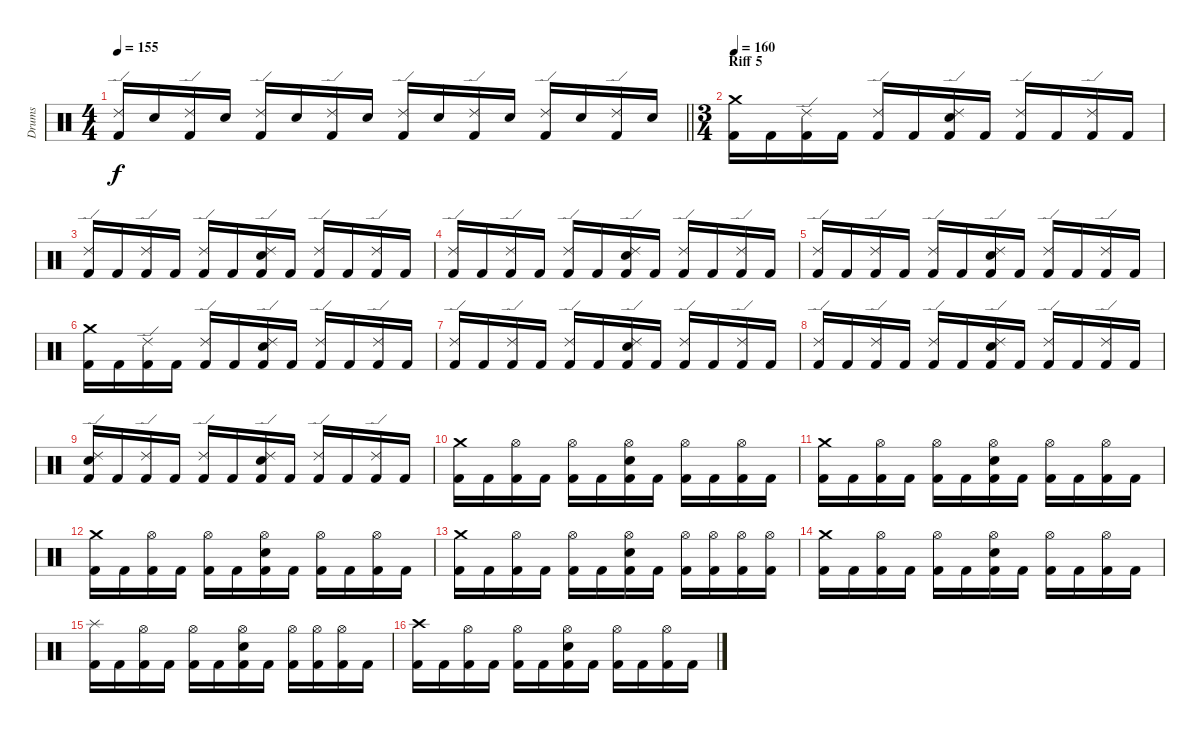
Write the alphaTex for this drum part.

\track ("Drums" "Drums") {instrument percussion}
\staff {score}
\articulation defaults
\ts (4 4)
\tempo 155
\clef neutral
\barLineRight lightlight
\ks c
("Ride (edge) 2" "Kick (hit) 2").16{dy f} "Electric Snare (hit)".16 ("Ride (edge) 2" "Kick (hit) 2").16 "Electric Snare (hit)".16 ("Ride (edge) 2" "Kick (hit) 2").16 "Electric Snare (hit)".16 ("Ride (edge) 2" "Kick (hit) 2").16 "Electric Snare (hit)".16 ("Ride (edge) 2" "Kick (hit) 2").16 "Electric Snare (hit)".16 ("Ride (edge) 2" "Kick (hit) 2").16 "Electric Snare (hit)".16 ("Ride (edge) 2" "Kick (hit) 2").16 "Electric Snare (hit)".16 ("Ride (edge) 2" "Kick (hit) 2").16 "Electric Snare (hit)".16 |
\ts (3 4)
\section ("" "Riff 5")
\tempo 160
("Crash medium (hit)" "Kick (hit) 2").16 "Kick (hit) 2".16 ("Ride (edge) 2" "Kick (hit) 2").16 "Kick (hit) 2".16 ("Ride (edge) 2" "Kick (hit) 2").16 "Kick (hit) 2".16 ("Ride (edge) 2" "Electric Snare (hit)" "Kick (hit) 2").16 "Kick (hit) 2".16 ("Ride (edge) 2" "Kick (hit) 2").16 "Kick (hit) 2".16 ("Ride (edge) 2" "Kick (hit) 2").16 "Kick (hit) 2".16 |
("Ride (edge) 2" "Kick (hit) 2").16 "Kick (hit) 2".16 ("Ride (edge) 2" "Kick (hit) 2").16 "Kick (hit) 2".16 ("Ride (edge) 2" "Kick (hit) 2").16 "Kick (hit) 2".16 ("Ride (edge) 2" "Electric Snare (hit)" "Kick (hit) 2").16 "Kick (hit) 2".16 ("Ride (edge) 2" "Kick (hit) 2").16 "Kick (hit) 2".16 ("Ride (edge) 2" "Kick (hit) 2").16 "Kick (hit) 2".16 |
("Ride (edge) 2" "Kick (hit) 2").16 "Kick (hit) 2".16 ("Ride (edge) 2" "Kick (hit) 2").16 "Kick (hit) 2".16 ("Ride (edge) 2" "Kick (hit) 2").16 "Kick (hit) 2".16 ("Ride (edge) 2" "Electric Snare (hit)" "Kick (hit) 2").16 "Kick (hit) 2".16 ("Ride (edge) 2" "Kick (hit) 2").16 "Kick (hit) 2".16 ("Ride (edge) 2" "Kick (hit) 2").16 "Kick (hit) 2".16 |
("Ride (edge) 2" "Kick (hit) 2").16 "Kick (hit) 2".16 ("Ride (edge) 2" "Kick (hit) 2").16 "Kick (hit) 2".16 ("Ride (edge) 2" "Kick (hit) 2").16 "Kick (hit) 2".16 ("Ride (edge) 2" "Electric Snare (hit)" "Kick (hit) 2").16 "Kick (hit) 2".16 ("Ride (edge) 2" "Kick (hit) 2").16 "Kick (hit) 2".16 ("Ride (edge) 2" "Kick (hit) 2").16 "Kick (hit) 2".16 |
("Crash medium (hit)" "Kick (hit) 2").16 "Kick (hit) 2".16 ("Ride (edge) 2" "Kick (hit) 2").16 "Kick (hit) 2".16 ("Ride (edge) 2" "Kick (hit) 2").16 "Kick (hit) 2".16 ("Ride (edge) 2" "Electric Snare (hit)" "Kick (hit) 2").16 "Kick (hit) 2".16 ("Ride (edge) 2" "Kick (hit) 2").16 "Kick (hit) 2".16 ("Ride (edge) 2" "Kick (hit) 2").16 "Kick (hit) 2".16 |
("Ride (edge) 2" "Kick (hit) 2").16 "Kick (hit) 2".16 ("Ride (edge) 2" "Kick (hit) 2").16 "Kick (hit) 2".16 ("Ride (edge) 2" "Kick (hit) 2").16 "Kick (hit) 2".16 ("Ride (edge) 2" "Electric Snare (hit)" "Kick (hit) 2").16 "Kick (hit) 2".16 ("Ride (edge) 2" "Kick (hit) 2").16 "Kick (hit) 2".16 ("Ride (edge) 2" "Kick (hit) 2").16 "Kick (hit) 2".16 |
("Ride (edge) 2" "Kick (hit) 2").16 "Kick (hit) 2".16 ("Ride (edge) 2" "Kick (hit) 2").16 "Kick (hit) 2".16 ("Ride (edge) 2" "Kick (hit) 2").16 "Kick (hit) 2".16 ("Ride (edge) 2" "Electric Snare (hit)" "Kick (hit) 2").16 "Kick (hit) 2".16 ("Ride (edge) 2" "Kick (hit) 2").16 "Kick (hit) 2".16 ("Ride (edge) 2" "Kick (hit) 2").16 "Kick (hit) 2".16 |
("Ride (edge) 2" "Electric Snare (hit)" "Kick (hit) 2").16 "Kick (hit) 2".16 ("Ride (edge) 2" "Kick (hit) 2").16 "Kick (hit) 2".16 ("Ride (edge) 2" "Kick (hit) 2").16 "Kick (hit) 2".16 ("Ride (edge) 2" "Electric Snare (hit)" "Kick (hit) 2").16 "Kick (hit) 2".16 ("Ride (edge) 2" "Kick (hit) 2").16 "Kick (hit) 2".16 ("Ride (edge) 2" "Kick (hit) 2").16 "Kick (hit) 2".16 |
("Crash medium (hit)" "Kick (hit) 2").16 "Kick (hit) 2".16 ("Hi-Hat (open)" "Kick (hit) 2").16 "Kick (hit) 2".16 ("Hi-Hat (open)" "Kick (hit) 2").16 "Kick (hit) 2".16 ("Hi-Hat (open)" "Electric Snare (hit)" "Kick (hit) 2").16 "Kick (hit) 2".16 ("Hi-Hat (open)" "Kick (hit) 2").16 "Kick (hit) 2".16 ("Hi-Hat (open)" "Kick (hit) 2").16 "Kick (hit) 2".16 |
("Crash medium (hit)" "Kick (hit) 2").16 "Kick (hit) 2".16 ("Hi-Hat (open)" "Kick (hit) 2").16 "Kick (hit) 2".16 ("Hi-Hat (open)" "Kick (hit) 2").16 "Kick (hit) 2".16 ("Hi-Hat (open)" "Electric Snare (hit)" "Kick (hit) 2").16 "Kick (hit) 2".16 ("Hi-Hat (open)" "Kick (hit) 2").16 "Kick (hit) 2".16 ("Hi-Hat (open)" "Kick (hit) 2").16 "Kick (hit) 2".16 |
("Crash medium (hit)" "Kick (hit) 2").16 "Kick (hit) 2".16 ("Hi-Hat (open)" "Kick (hit) 2").16 "Kick (hit) 2".16 ("Hi-Hat (open)" "Kick (hit) 2").16 "Kick (hit) 2".16 ("Hi-Hat (open)" "Electric Snare (hit)" "Kick (hit) 2").16 "Kick (hit) 2".16 ("Hi-Hat (open)" "Kick (hit) 2").16 "Kick (hit) 2".16 ("Hi-Hat (open)" "Kick (hit) 2").16 "Kick (hit) 2".16 |
("Crash medium (hit)" "Kick (hit) 2").16 "Kick (hit) 2".16 ("Hi-Hat (open)" "Kick (hit) 2").16 "Kick (hit) 2".16 ("Hi-Hat (open)" "Kick (hit) 2").16 "Kick (hit) 2".16 ("Hi-Hat (open)" "Electric Snare (hit)" "Kick (hit) 2").16 "Kick (hit) 2".16 ("Hi-Hat (open)" "Kick (hit) 2").16 ("Hi-Hat (open)" "Kick (hit) 2").16 ("Hi-Hat (open)" "Kick (hit) 2").16 ("Hi-Hat (open)" "Kick (hit) 2").16 |
("Crash medium (hit)" "Kick (hit) 2").16 "Kick (hit) 2".16 ("Hi-Hat (open)" "Kick (hit) 2").16 "Kick (hit) 2".16 ("Hi-Hat (open)" "Kick (hit) 2").16 "Kick (hit) 2".16 ("Hi-Hat (open)" "Electric Snare (hit)" "Kick (hit) 2").16 "Kick (hit) 2".16 ("Hi-Hat (open)" "Kick (hit) 2").16 "Kick (hit) 2".16 ("Hi-Hat (open)" "Kick (hit) 2").16 "Kick (hit) 2".16 |
("Splash (hit)" "Kick (hit) 2").16 "Kick (hit) 2".16 ("Hi-Hat (open)" "Kick (hit) 2").16 "Kick (hit) 2".16 ("Hi-Hat (open)" "Kick (hit) 2").16 "Kick (hit) 2".16 ("Hi-Hat (open)" "Electric Snare (hit)" "Kick (hit) 2").16 "Kick (hit) 2".16 ("Hi-Hat (open)" "Kick (hit) 2").16 ("Hi-Hat (open)" "Kick (hit) 2").16 ("Hi-Hat (open)" "Kick (hit) 2").16 "Kick (hit) 2".16 |
("Crash high (hit)" "Kick (hit) 2").16 "Kick (hit) 2".16 ("Hi-Hat (open)" "Kick (hit) 2").16 "Kick (hit) 2".16 ("Hi-Hat (open)" "Kick (hit) 2").16 "Kick (hit) 2".16 ("Hi-Hat (open)" "Electric Snare (hit)" "Kick (hit) 2").16 "Kick (hit) 2".16 ("Hi-Hat (open)" "Kick (hit) 2").16 "Kick (hit) 2".16 ("Hi-Hat (open)" "Kick (hit) 2").16 "Kick (hit) 2".16
